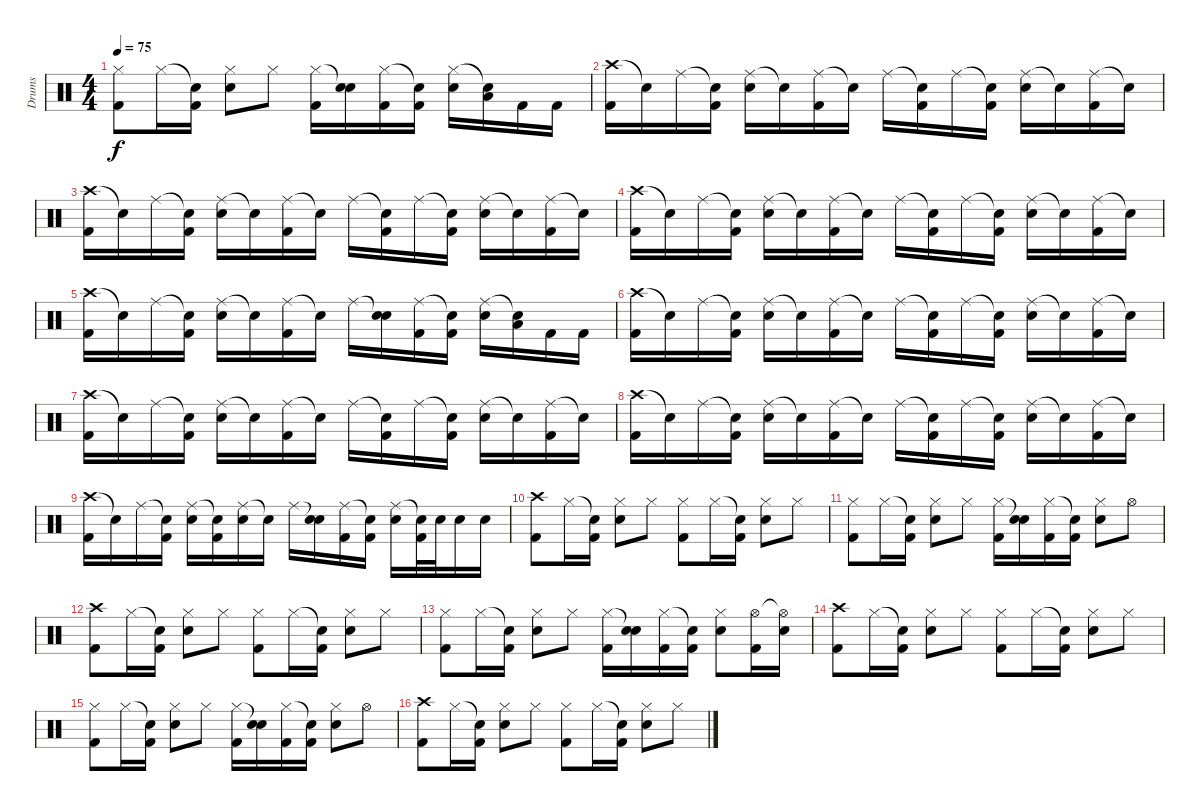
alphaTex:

\track ("Drums" "Drums") {instrument percussion}
\staff {score}
\articulation defaults
\ts (4 4)
\tempo 75
\clef neutral
\ks c
("Hi-Hat (closed)" "Kick (hit) 2").8{dy f} "Hi-Hat (closed)".16 ("Snare (hit)"{t} "Kick (hit) 2").16 ("Hi-Hat (closed)" "Electric Snare (hit)").8 "Hi-Hat (closed)".8 ("Hi-Hat (closed)" "Kick (hit) 2").16 ("Snare (hit)"{t} "Electric Snare (hit)").16 ("Hi-Hat (closed)" "Kick (hit) 2").16 ("Snare (hit)"{t} "Kick (hit) 2").16 ("Hi-Hat (closed)" "Electric Snare (hit)").16 ("Snare (hit)"{t} "Low Tom (hit)").16 "Kick (hit) 2".16 "Kick (hit) 2".16 |
("Crash high (hit)" "Kick (hit) 2").16 "Snare (hit)"{t}.16 "Ride (middle)".16 ("Snare (hit)"{t} "Kick (hit) 2").16 ("Ride (middle)" "Electric Snare (hit)").16 "Snare (hit)"{t}.16 ("Ride (middle)" "Kick (hit) 2").16 "Snare (hit)"{t}.16 "Ride (middle)".16 ("Snare (hit)"{t} "Kick (hit) 2").16 "Ride (middle)".16 ("Snare (hit)"{t} "Kick (hit) 2").16 ("Ride (middle)" "Electric Snare (hit)").16 "Snare (hit)"{t}.16 ("Ride (middle)" "Kick (hit) 2").16 "Snare (hit)"{t}.16 |
("Crash high (hit)" "Kick (hit) 2").16 "Snare (hit)"{t}.16 "Ride (middle)".16 ("Snare (hit)"{t} "Kick (hit) 2").16 ("Ride (middle)" "Electric Snare (hit)").16 "Snare (hit)"{t}.16 ("Ride (middle)" "Kick (hit) 2").16 "Snare (hit)"{t}.16 "Ride (middle)".16 ("Snare (hit)"{t} "Kick (hit) 2").16 "Ride (middle)".16 ("Snare (hit)"{t} "Kick (hit) 2").16 ("Ride (middle)" "Electric Snare (hit)").16 "Snare (hit)"{t}.16 ("Ride (middle)" "Kick (hit) 2").16 "Snare (hit)"{t}.16 |
("Crash high (hit)" "Kick (hit) 2").16 "Snare (hit)"{t}.16 "Ride (middle)".16 ("Snare (hit)"{t} "Kick (hit) 2").16 ("Ride (middle)" "Electric Snare (hit)").16 "Snare (hit)"{t}.16 ("Ride (middle)" "Kick (hit) 2").16 "Snare (hit)"{t}.16 "Ride (middle)".16 ("Snare (hit)"{t} "Kick (hit) 2").16 "Ride (middle)".16 ("Snare (hit)"{t} "Kick (hit) 2").16 ("Ride (middle)" "Electric Snare (hit)").16 "Snare (hit)"{t}.16 ("Ride (middle)" "Kick (hit) 2").16 "Snare (hit)"{t}.16 |
("Crash high (hit)" "Kick (hit) 2").16 "Snare (hit)"{t}.16 "Ride (middle)".16 ("Snare (hit)"{t} "Kick (hit) 2").16 ("Ride (middle)" "Electric Snare (hit)").16 "Snare (hit)"{t}.16 ("Ride (middle)" "Kick (hit) 2").16 "Snare (hit)"{t}.16 "Ride (middle)".16 ("Snare (hit)"{t} "Electric Snare (hit)").16 ("Ride (middle)" "Kick (hit) 2").16 ("Snare (hit)"{t} "Kick (hit) 2").16 ("Ride (middle)" "Electric Snare (hit)").16 ("Snare (hit)"{t} "Low Tom (hit)").16 "Kick (hit) 2".16 "Kick (hit) 2".16 |
("Crash high (hit)" "Kick (hit) 2").16 "Snare (hit)"{t}.16 "Ride (middle)".16 ("Snare (hit)"{t} "Kick (hit) 2").16 ("Ride (middle)" "Electric Snare (hit)").16 "Snare (hit)"{t}.16 ("Ride (middle)" "Kick (hit) 2").16 "Snare (hit)"{t}.16 "Ride (middle)".16 ("Snare (hit)"{t} "Kick (hit) 2").16 "Ride (middle)".16 ("Snare (hit)"{t} "Kick (hit) 2").16 ("Ride (middle)" "Electric Snare (hit)").16 "Snare (hit)"{t}.16 ("Ride (middle)" "Kick (hit) 2").16 "Snare (hit)"{t}.16 |
("Crash high (hit)" "Kick (hit) 2").16 "Snare (hit)"{t}.16 "Ride (middle)".16 ("Snare (hit)"{t} "Kick (hit) 2").16 ("Ride (middle)" "Electric Snare (hit)").16 "Snare (hit)"{t}.16 ("Ride (middle)" "Kick (hit) 2").16 "Snare (hit)"{t}.16 "Ride (middle)".16 ("Snare (hit)"{t} "Kick (hit) 2").16 "Ride (middle)".16 ("Snare (hit)"{t} "Kick (hit) 2").16 ("Ride (middle)" "Electric Snare (hit)").16 "Snare (hit)"{t}.16 ("Ride (middle)" "Kick (hit) 2").16 "Snare (hit)"{t}.16 |
("Crash high (hit)" "Kick (hit) 2").16 "Snare (hit)"{t}.16 "Ride (middle)".16 ("Snare (hit)"{t} "Kick (hit) 2").16 ("Ride (middle)" "Electric Snare (hit)").16 "Snare (hit)"{t}.16 ("Ride (middle)" "Kick (hit) 2").16 "Snare (hit)"{t}.16 "Ride (middle)".16 ("Snare (hit)"{t} "Kick (hit) 2").16 "Ride (middle)".16 ("Snare (hit)"{t} "Kick (hit) 2").16 ("Ride (middle)" "Electric Snare (hit)").16 "Snare (hit)"{t}.16 ("Ride (middle)" "Kick (hit) 2").16 "Snare (hit)"{t}.16 |
("Crash high (hit)" "Kick (hit) 2").16 "Snare (hit)"{t}.16 "Ride (middle)".16 ("Snare (hit)"{t} "Kick (hit) 2").16 ("Ride (middle)" "Electric Snare (hit)").16 ("Snare (hit)"{t} "Kick (hit) 2").16 ("Ride (middle)" "Electric Snare (hit)").16 "Snare (hit)"{t}.16 "Ride (middle)".16 ("Snare (hit)"{t} "Electric Snare (hit)").16 ("Ride (middle)" "Kick (hit) 2").16 ("Snare (hit)"{t} "Kick (hit) 2").16 ("Ride (middle)" "Electric Snare (hit)").16 ("Snare (hit)"{t} "Kick (hit) 2").32 "Electric Snare (hit)".32 "Electric Snare (hit)".16 "Electric Snare (hit)".16 |
("Crash high (hit)" "Kick (hit) 2").8 "Hi-Hat (closed)".16 ("Snare (hit)"{t} "Kick (hit) 2").16 ("Hi-Hat (closed)" "Electric Snare (hit)").8 "Hi-Hat (closed)".8 ("Hi-Hat (closed)" "Kick (hit) 2").8 "Hi-Hat (closed)".16 ("Snare (hit)"{t} "Kick (hit) 2").16 ("Hi-Hat (closed)" "Electric Snare (hit)").8 "Hi-Hat (closed)".8 |
("Hi-Hat (closed)" "Kick (hit) 2").8 "Hi-Hat (closed)".16 ("Snare (hit)"{t} "Kick (hit) 2").16 ("Hi-Hat (closed)" "Electric Snare (hit)").8 "Hi-Hat (closed)".8 ("Hi-Hat (closed)" "Kick (hit) 2").16 ("Snare (hit)"{t} "Electric Snare (hit)").16 ("Hi-Hat (closed)" "Kick (hit) 2").16 ("Snare (hit)"{t} "Kick (hit) 2").16 ("Hi-Hat (closed)" "Electric Snare (hit)").8 "Hi-Hat (open)".8 |
("Crash high (hit)" "Kick (hit) 2").8 "Hi-Hat (closed)".16 ("Snare (hit)"{t} "Kick (hit) 2").16 ("Hi-Hat (closed)" "Electric Snare (hit)").8 "Hi-Hat (closed)".8 ("Hi-Hat (closed)" "Kick (hit) 2").8 "Hi-Hat (closed)".16 ("Snare (hit)"{t} "Kick (hit) 2").16 ("Hi-Hat (closed)" "Electric Snare (hit)").8 "Hi-Hat (closed)".8 |
("Hi-Hat (closed)" "Kick (hit) 2").8 "Hi-Hat (closed)".16 ("Snare (hit)"{t} "Kick (hit) 2").16 ("Hi-Hat (closed)" "Electric Snare (hit)").8 "Hi-Hat (closed)".8 ("Hi-Hat (closed)" "Kick (hit) 2").16 ("Snare (hit)"{t} "Electric Snare (hit)").16 ("Hi-Hat (closed)" "Kick (hit) 2").16 ("Snare (hit)"{t} "Kick (hit) 2").16 ("Hi-Hat (closed)" "Electric Snare (hit)").8 ("Hi-Hat (open)" "Kick (hit) 2").16 ("Hi-Hat (open)"{t} "Electric Snare (hit)").16 |
("Crash high (hit)" "Kick (hit) 2").8 "Hi-Hat (closed)".16 ("Snare (hit)"{t} "Kick (hit) 2").16 ("Hi-Hat (closed)" "Electric Snare (hit)").8 "Hi-Hat (closed)".8 ("Hi-Hat (closed)" "Kick (hit) 2").8 "Hi-Hat (closed)".16 ("Snare (hit)"{t} "Kick (hit) 2").16 ("Hi-Hat (closed)" "Electric Snare (hit)").8 "Hi-Hat (closed)".8 |
("Hi-Hat (closed)" "Kick (hit) 2").8 "Hi-Hat (closed)".16 ("Snare (hit)"{t} "Kick (hit) 2").16 ("Hi-Hat (closed)" "Electric Snare (hit)").8 "Hi-Hat (closed)".8 ("Hi-Hat (closed)" "Kick (hit) 2").16 ("Snare (hit)"{t} "Electric Snare (hit)").16 ("Hi-Hat (closed)" "Kick (hit) 2").16 ("Snare (hit)"{t} "Kick (hit) 2").16 ("Hi-Hat (closed)" "Electric Snare (hit)").8 "Hi-Hat (open)".8 |
("Crash high (hit)" "Kick (hit) 2").8 "Hi-Hat (closed)".16 ("Snare (hit)"{t} "Kick (hit) 2").16 ("Hi-Hat (closed)" "Electric Snare (hit)").8 "Hi-Hat (closed)".8 ("Hi-Hat (closed)" "Kick (hit) 2").8 "Hi-Hat (closed)".16 ("Snare (hit)"{t} "Kick (hit) 2").16 ("Hi-Hat (closed)" "Electric Snare (hit)").8 "Hi-Hat (closed)".8
